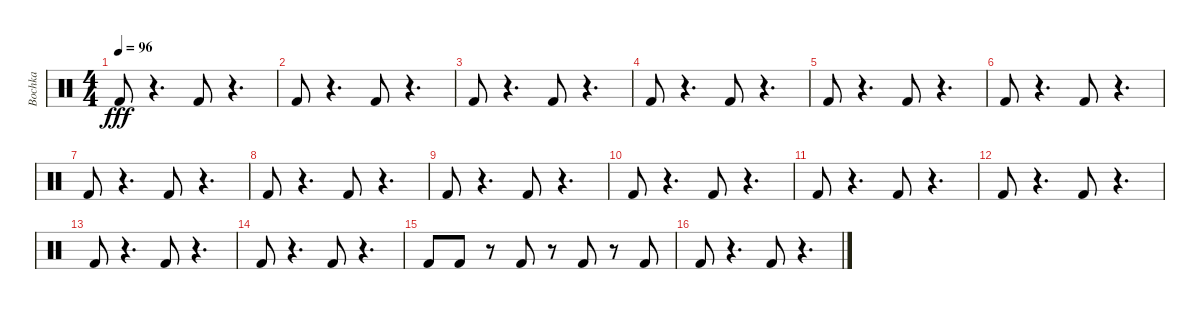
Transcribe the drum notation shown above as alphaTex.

\track ("Bochka" "Bochka") {instrument percussion}
\staff {score}
\articulation defaults
\ts (4 4)
\tempo 96
\clef neutral
\ks c "Kick (hit) 2".8{dy fff}
r.4{d} "Kick (hit) 2".8 r.4{d} |
"Kick (hit) 2".8 r.4{d} "Kick (hit) 2".8 r.4{d} |
"Kick (hit) 2".8 r.4{d} "Kick (hit) 2".8 r.4{d} |
"Kick (hit) 2".8 r.4{d} "Kick (hit) 2".8 r.4{d} |
"Kick (hit) 2".8 r.4{d} "Kick (hit) 2".8 r.4{d} |
"Kick (hit) 2".8 r.4{d} "Kick (hit) 2".8 r.4{d} |
"Kick (hit) 2".8 r.4{d} "Kick (hit) 2".8 r.4{d} |
"Kick (hit) 2".8 r.4{d} "Kick (hit) 2".8 r.4{d} |
"Kick (hit) 2".8 r.4{d} "Kick (hit) 2".8 r.4{d} |
"Kick (hit) 2".8 r.4{d} "Kick (hit) 2".8 r.4{d} |
"Kick (hit) 2".8 r.4{d} "Kick (hit) 2".8 r.4{d} |
"Kick (hit) 2".8 r.4{d} "Kick (hit) 2".8 r.4{d} |
"Kick (hit) 2".8 r.4{d} "Kick (hit) 2".8 r.4{d} |
"Kick (hit) 2".8 r.4{d} "Kick (hit) 2".8 r.4{d} |
"Kick (hit) 2".8 "Kick (hit) 2".8 r.8 "Kick (hit) 2".8 r.8 "Kick (hit) 2".8 r.8 "Kick (hit) 2".8 |
"Kick (hit) 2".8 r.4{d} "Kick (hit) 2".8 r.4{d}
